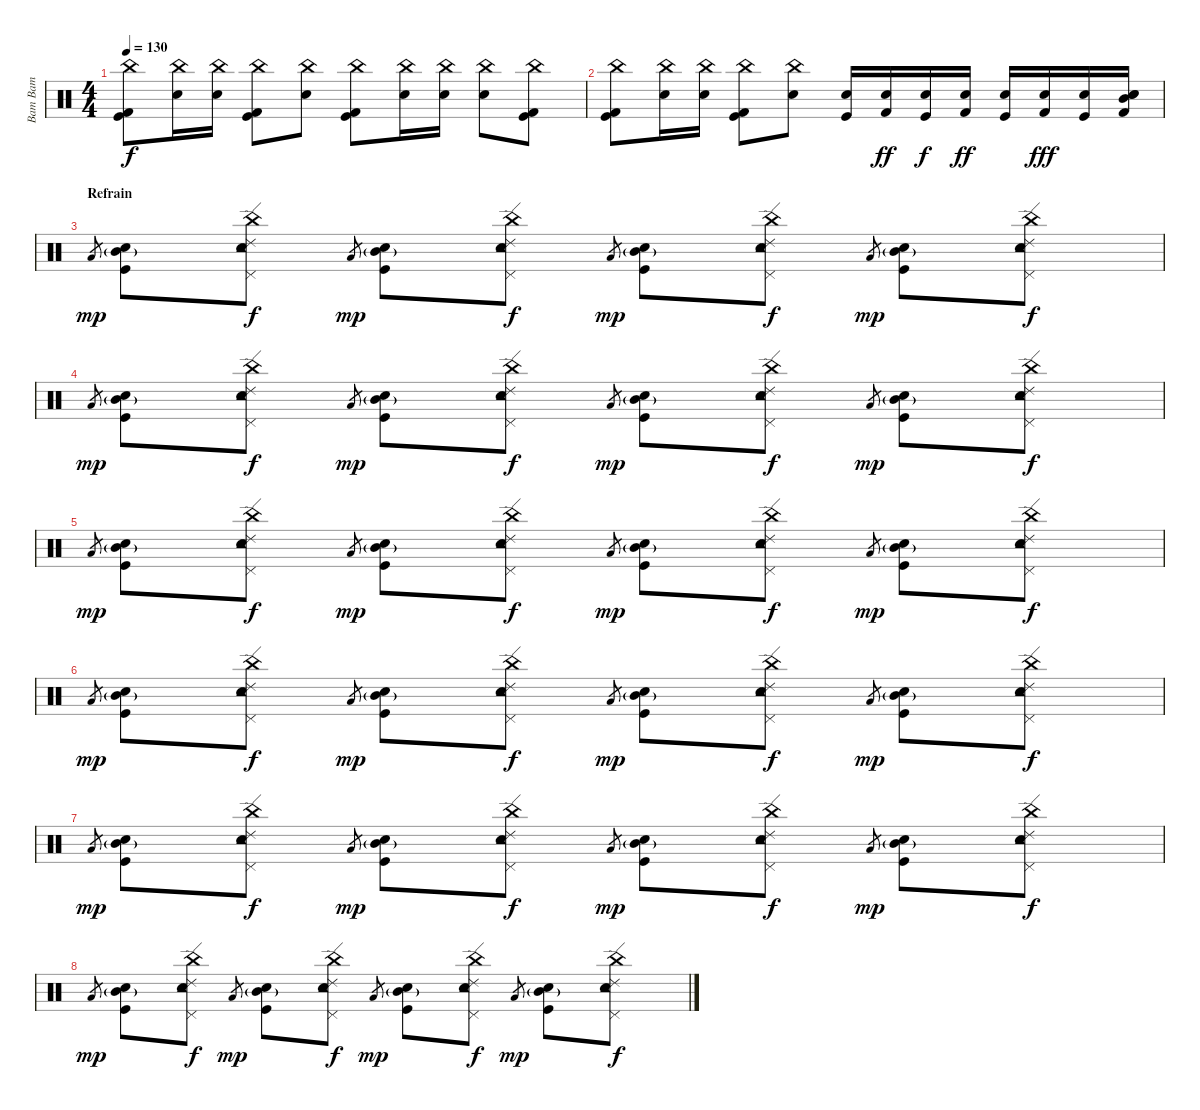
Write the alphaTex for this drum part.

\track ("Bam Bam" "Bam Bam") {instrument percussion}
\staff {score}
\articulation defaults
\ts (4 4)
\tempo 130
\clef neutral
\ks c
("China (hit)" "Kick (hit) 2" "Kick (hit)").8{dy f} ("China (hit)" "Electric Snare (hit)").16 ("China (hit)" "Electric Snare (hit)").16 ("China (hit)" "Kick (hit) 2" "Kick (hit)").8 ("China (hit)" "Snare (hit) 2").8 ("China (hit)" "Kick (hit) 2" "Kick (hit)").8 ("China (hit)" "Electric Snare (hit)").16 ("China (hit)" "Electric Snare (hit)").16 ("China (hit)" "Snare (hit) 2").8 ("China (hit)" "Kick (hit) 2" "Kick (hit)").8 |
("China (hit)" "Kick (hit) 2" "Kick (hit)").8 ("China (hit)" "Electric Snare (hit)").16 ("China (hit)" "Electric Snare (hit)").16 ("China (hit)" "Kick (hit) 2" "Kick (hit)").8 ("China (hit)" "Snare (hit) 2").8 ("Kick (hit)" "Snare (hit) 2").16 ("Kick (hit) 2" "Electric Snare (hit)").16{dy ff} ("Kick (hit)" "Snare (hit) 2").16{dy f} ("Kick (hit) 2" "Electric Snare (hit)").16{dy ff} ("Kick (hit)" "Snare (hit) 2").16 ("Kick (hit) 2" "Electric Snare (hit)").16{dy fff} ("Kick (hit)" "Snare (hit) 2").16 ("Mid Tom (hit)" "Kick (hit) 2" "Electric Snare (hit)" "Snare (hit) 2").16 |
\section ("" "Refrain")
"Low Tom (hit)".8{gr dy mp} ("Mid Tom (hit)"{g} "Kick (hit)" "Snare (hit) 2").8 ("Tambourine (hit)" "Pedal Hi-Hat (hit)" "China (hit)" "Ride (edge) 2" "Electric Snare (hit)").8{dy f} "Low Tom (hit)".8{gr dy mp} ("Mid Tom (hit)"{g} "Kick (hit)" "Snare (hit) 2").8 ("Tambourine (hit)" "Pedal Hi-Hat (hit)" "China (hit)" "Ride (edge) 2" "Electric Snare (hit)").8{dy f} "Low Tom (hit)".8{gr dy mp} ("Mid Tom (hit)"{g} "Kick (hit)" "Snare (hit) 2").8 ("Tambourine (hit)" "Pedal Hi-Hat (hit)" "China (hit)" "Ride (edge) 2" "Electric Snare (hit)").8{dy f} "Low Tom (hit)".8{gr dy mp} ("Mid Tom (hit)"{g} "Kick (hit)" "Snare (hit) 2").8 ("Tambourine (hit)" "Pedal Hi-Hat (hit)" "China (hit)" "Ride (edge) 2" "Electric Snare (hit)").8{dy f} |
"Low Tom (hit)".8{gr dy mp} ("Mid Tom (hit)"{g} "Kick (hit)" "Snare (hit) 2").8 ("Tambourine (hit)" "Pedal Hi-Hat (hit)" "China (hit)" "Ride (edge) 2" "Electric Snare (hit)").8{dy f} "Low Tom (hit)".8{gr dy mp} ("Mid Tom (hit)"{g} "Kick (hit)" "Snare (hit) 2").8 ("Tambourine (hit)" "Pedal Hi-Hat (hit)" "China (hit)" "Ride (edge) 2" "Electric Snare (hit)").8{dy f} "Low Tom (hit)".8{gr dy mp} ("Mid Tom (hit)"{g} "Kick (hit)" "Snare (hit) 2").8 ("Tambourine (hit)" "Pedal Hi-Hat (hit)" "China (hit)" "Ride (edge) 2" "Electric Snare (hit)").8{dy f} "Low Tom (hit)".8{gr dy mp} ("Mid Tom (hit)"{g} "Kick (hit)" "Snare (hit) 2").8 ("Tambourine (hit)" "Pedal Hi-Hat (hit)" "China (hit)" "Ride (edge) 2" "Electric Snare (hit)").8{dy f} |
"Low Tom (hit)".8{gr dy mp} ("Mid Tom (hit)"{g} "Kick (hit)" "Snare (hit) 2").8 ("Tambourine (hit)" "Pedal Hi-Hat (hit)" "China (hit)" "Ride (edge) 2" "Electric Snare (hit)").8{dy f} "Low Tom (hit)".8{gr dy mp} ("Mid Tom (hit)"{g} "Kick (hit)" "Snare (hit) 2").8 ("Tambourine (hit)" "Pedal Hi-Hat (hit)" "China (hit)" "Ride (edge) 2" "Electric Snare (hit)").8{dy f} "Low Tom (hit)".8{gr dy mp} ("Mid Tom (hit)"{g} "Kick (hit)" "Snare (hit) 2").8 ("Tambourine (hit)" "Pedal Hi-Hat (hit)" "China (hit)" "Ride (edge) 2" "Electric Snare (hit)").8{dy f} "Low Tom (hit)".8{gr dy mp} ("Mid Tom (hit)"{g} "Kick (hit)" "Snare (hit) 2").8 ("Tambourine (hit)" "Pedal Hi-Hat (hit)" "China (hit)" "Ride (edge) 2" "Electric Snare (hit)").8{dy f} |
"Low Tom (hit)".8{gr dy mp} ("Mid Tom (hit)"{g} "Kick (hit)" "Snare (hit) 2").8 ("Tambourine (hit)" "Pedal Hi-Hat (hit)" "China (hit)" "Ride (edge) 2" "Electric Snare (hit)").8{dy f} "Low Tom (hit)".8{gr dy mp} ("Mid Tom (hit)"{g} "Kick (hit)" "Snare (hit) 2").8 ("Tambourine (hit)" "Pedal Hi-Hat (hit)" "China (hit)" "Ride (edge) 2" "Electric Snare (hit)").8{dy f} "Low Tom (hit)".8{gr dy mp} ("Mid Tom (hit)"{g} "Kick (hit)" "Snare (hit) 2").8 ("Tambourine (hit)" "Pedal Hi-Hat (hit)" "China (hit)" "Ride (edge) 2" "Electric Snare (hit)").8{dy f} "Low Tom (hit)".8{gr dy mp} ("Mid Tom (hit)"{g} "Kick (hit)" "Snare (hit) 2").8 ("Tambourine (hit)" "Pedal Hi-Hat (hit)" "China (hit)" "Ride (edge) 2" "Electric Snare (hit)").8{dy f} |
"Low Tom (hit)".8{gr dy mp} ("Mid Tom (hit)"{g} "Kick (hit)" "Snare (hit) 2").8 ("Tambourine (hit)" "Pedal Hi-Hat (hit)" "China (hit)" "Ride (edge) 2" "Electric Snare (hit)").8{dy f} "Low Tom (hit)".8{gr dy mp} ("Mid Tom (hit)"{g} "Kick (hit)" "Snare (hit) 2").8 ("Tambourine (hit)" "Pedal Hi-Hat (hit)" "China (hit)" "Ride (edge) 2" "Electric Snare (hit)").8{dy f} "Low Tom (hit)".8{gr dy mp} ("Mid Tom (hit)"{g} "Kick (hit)" "Snare (hit) 2").8 ("Tambourine (hit)" "Pedal Hi-Hat (hit)" "China (hit)" "Ride (edge) 2" "Electric Snare (hit)").8{dy f} "Low Tom (hit)".8{gr dy mp} ("Mid Tom (hit)"{g} "Kick (hit)" "Snare (hit) 2").8 ("Tambourine (hit)" "Pedal Hi-Hat (hit)" "China (hit)" "Ride (edge) 2" "Electric Snare (hit)").8{dy f} |
"Low Tom (hit)".8{gr dy mp} ("Mid Tom (hit)"{g} "Kick (hit)" "Snare (hit) 2").8 ("Tambourine (hit)" "Pedal Hi-Hat (hit)" "China (hit)" "Ride (edge) 2" "Electric Snare (hit)").8{dy f} "Low Tom (hit)".8{gr dy mp} ("Mid Tom (hit)"{g} "Kick (hit)" "Snare (hit) 2").8 ("Tambourine (hit)" "Pedal Hi-Hat (hit)" "China (hit)" "Ride (edge) 2" "Electric Snare (hit)").8{dy f} "Low Tom (hit)".8{gr dy mp} ("Mid Tom (hit)"{g} "Kick (hit)" "Snare (hit) 2").8 ("Tambourine (hit)" "Pedal Hi-Hat (hit)" "China (hit)" "Ride (edge) 2" "Electric Snare (hit)").8{dy f} "Low Tom (hit)".8{gr dy mp} ("Mid Tom (hit)"{g} "Kick (hit)" "Snare (hit) 2").8 ("Tambourine (hit)" "Pedal Hi-Hat (hit)" "China (hit)" "Ride (edge) 2" "Electric Snare (hit)").8{dy f}
